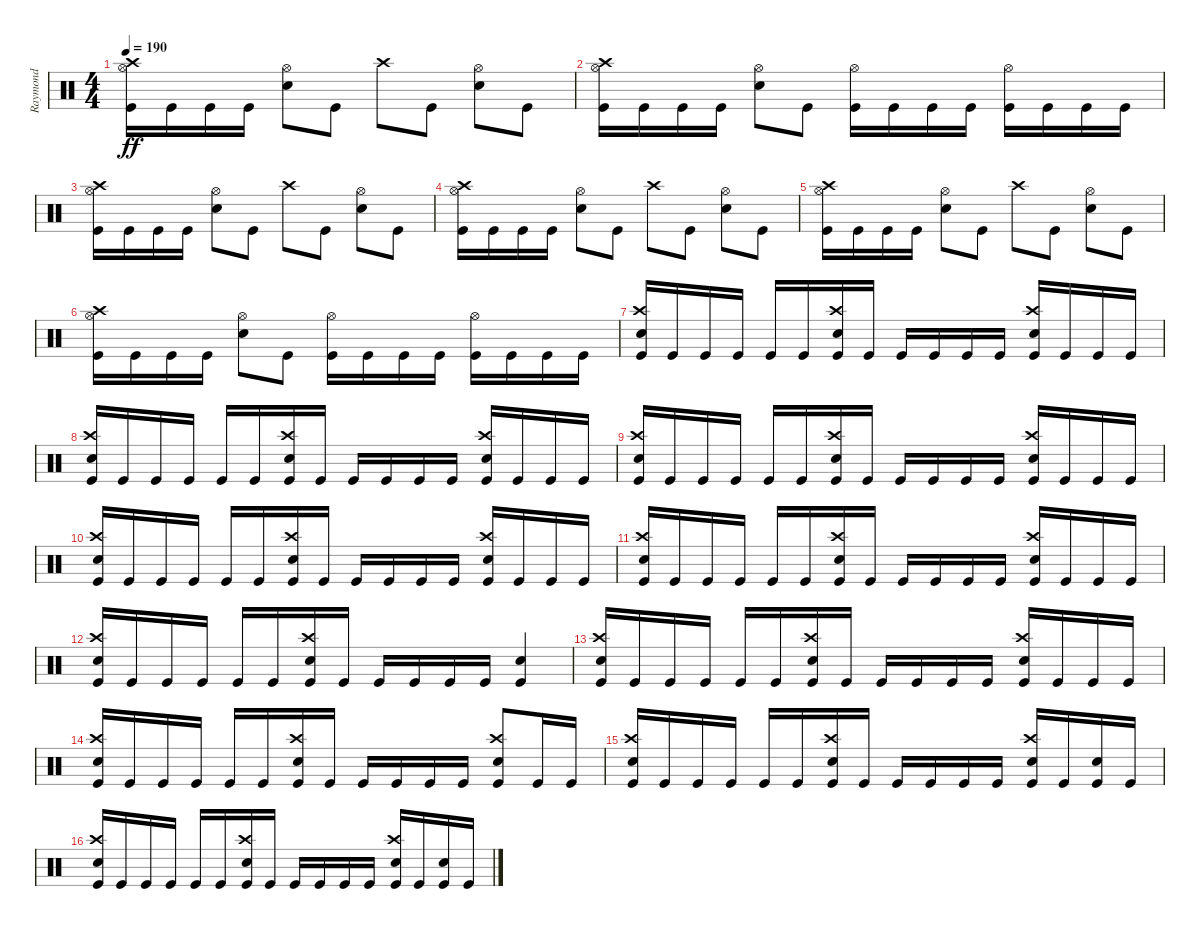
\track ("Raymond" "Raymond") {instrument percussion}
\staff {score}
\articulation defaults
\ts (4 4)
\tempo 190
\clef neutral
\ks c
("Kick (hit)" "Hi-Hat (open)" "Crash high (hit)").16{dy ff} "Kick (hit)".16 "Kick (hit)".16 "Kick (hit)".16 ("Snare (hit) 2" "Hi-Hat (open)").8 "Kick (hit)".8 "Crash high (hit)".8 "Kick (hit)".8 ("Snare (hit) 2" "Hi-Hat (open)").8 "Kick (hit)".8 |
("Kick (hit)" "Hi-Hat (open)" "Crash high (hit)").16 "Kick (hit)".16 "Kick (hit)".16 "Kick (hit)".16 ("Snare (hit) 2" "Hi-Hat (open)").8 "Kick (hit)".8 ("Kick (hit)" "Hi-Hat (open)").16 "Kick (hit)".16 "Kick (hit)".16 "Kick (hit)".16 ("Kick (hit)" "Hi-Hat (open)").16 "Kick (hit)".16 "Kick (hit)".16 "Kick (hit)".16 |
("Kick (hit)" "Hi-Hat (open)" "Crash high (hit)").16 "Kick (hit)".16 "Kick (hit)".16 "Kick (hit)".16 ("Snare (hit) 2" "Hi-Hat (open)").8 "Kick (hit)".8 "Crash high (hit)".8 "Kick (hit)".8 ("Snare (hit) 2" "Hi-Hat (open)").8 "Kick (hit)".8 |
("Kick (hit)" "Hi-Hat (open)" "Crash high (hit)").16 "Kick (hit)".16 "Kick (hit)".16 "Kick (hit)".16 ("Snare (hit) 2" "Hi-Hat (open)").8 "Kick (hit)".8 "Crash high (hit)".8 "Kick (hit)".8 ("Snare (hit) 2" "Hi-Hat (open)").8 "Kick (hit)".8 |
("Kick (hit)" "Hi-Hat (open)" "Crash high (hit)").16 "Kick (hit)".16 "Kick (hit)".16 "Kick (hit)".16 ("Snare (hit) 2" "Hi-Hat (open)").8 "Kick (hit)".8 "Crash high (hit)".8 "Kick (hit)".8 ("Snare (hit) 2" "Hi-Hat (open)").8 "Kick (hit)".8 |
("Kick (hit)" "Hi-Hat (open)" "Crash high (hit)").16 "Kick (hit)".16 "Kick (hit)".16 "Kick (hit)".16 ("Snare (hit) 2" "Hi-Hat (open)").8 "Kick (hit)".8 ("Kick (hit)" "Hi-Hat (open)").16 "Kick (hit)".16 "Kick (hit)".16 "Kick (hit)".16 ("Kick (hit)" "Hi-Hat (open)").16 "Kick (hit)".16 "Kick (hit)".16 "Kick (hit)".16 |
("Kick (hit)" "Snare (hit) 2" "Crash high (hit)").16 "Kick (hit)".16 "Kick (hit)".16 "Kick (hit)".16 "Kick (hit)".16 "Kick (hit)".16 ("Kick (hit)" "Snare (hit) 2" "Crash high (hit)").16 "Kick (hit)".16 "Kick (hit)".16 "Kick (hit)".16 "Kick (hit)".16 "Kick (hit)".16 ("Kick (hit)" "Snare (hit) 2" "Crash high (hit)").16 "Kick (hit)".16 "Kick (hit)".16 "Kick (hit)".16 |
("Kick (hit)" "Snare (hit) 2" "Crash high (hit)").16 "Kick (hit)".16 "Kick (hit)".16 "Kick (hit)".16 "Kick (hit)".16 "Kick (hit)".16 ("Kick (hit)" "Snare (hit) 2" "Crash high (hit)").16 "Kick (hit)".16 "Kick (hit)".16 "Kick (hit)".16 "Kick (hit)".16 "Kick (hit)".16 ("Kick (hit)" "Snare (hit) 2" "Crash high (hit)").16 "Kick (hit)".16 "Kick (hit)".16 "Kick (hit)".16 |
("Kick (hit)" "Snare (hit) 2" "Crash high (hit)").16 "Kick (hit)".16 "Kick (hit)".16 "Kick (hit)".16 "Kick (hit)".16 "Kick (hit)".16 ("Kick (hit)" "Snare (hit) 2" "Crash high (hit)").16 "Kick (hit)".16 "Kick (hit)".16 "Kick (hit)".16 "Kick (hit)".16 "Kick (hit)".16 ("Kick (hit)" "Snare (hit) 2" "Crash high (hit)").16 "Kick (hit)".16 "Kick (hit)".16 "Kick (hit)".16 |
("Kick (hit)" "Snare (hit) 2" "Crash high (hit)").16 "Kick (hit)".16 "Kick (hit)".16 "Kick (hit)".16 "Kick (hit)".16 "Kick (hit)".16 ("Kick (hit)" "Snare (hit) 2" "Crash high (hit)").16 "Kick (hit)".16 "Kick (hit)".16 "Kick (hit)".16 "Kick (hit)".16 "Kick (hit)".16 ("Kick (hit)" "Snare (hit) 2" "Crash high (hit)").16 "Kick (hit)".16 "Kick (hit)".16 "Kick (hit)".16 |
("Kick (hit)" "Snare (hit) 2" "Crash high (hit)").16 "Kick (hit)".16 "Kick (hit)".16 "Kick (hit)".16 "Kick (hit)".16 "Kick (hit)".16 ("Kick (hit)" "Snare (hit) 2" "Crash high (hit)").16 "Kick (hit)".16 "Kick (hit)".16 "Kick (hit)".16 "Kick (hit)".16 "Kick (hit)".16 ("Kick (hit)" "Snare (hit) 2" "Crash high (hit)").16 "Kick (hit)".16 "Kick (hit)".16 "Kick (hit)".16 |
("Kick (hit)" "Snare (hit) 2" "Crash high (hit)").16 "Kick (hit)".16 "Kick (hit)".16 "Kick (hit)".16 "Kick (hit)".16 "Kick (hit)".16 ("Kick (hit)" "Snare (hit) 2" "Crash high (hit)").16 "Kick (hit)".16 "Kick (hit)".16 "Kick (hit)".16 "Kick (hit)".16 "Kick (hit)".16 ("Kick (hit)" "Snare (hit) 2").4 |
("Kick (hit)" "Snare (hit) 2" "Crash high (hit)").16 "Kick (hit)".16 "Kick (hit)".16 "Kick (hit)".16 "Kick (hit)".16 "Kick (hit)".16 ("Kick (hit)" "Snare (hit) 2" "Crash high (hit)").16 "Kick (hit)".16 "Kick (hit)".16 "Kick (hit)".16 "Kick (hit)".16 "Kick (hit)".16 ("Kick (hit)" "Snare (hit) 2" "Crash high (hit)").16 "Kick (hit)".16 "Kick (hit)".16 "Kick (hit)".16 |
("Kick (hit)" "Snare (hit) 2" "Crash high (hit)").16 "Kick (hit)".16 "Kick (hit)".16 "Kick (hit)".16 "Kick (hit)".16 "Kick (hit)".16 ("Kick (hit)" "Snare (hit) 2" "Crash high (hit)").16 "Kick (hit)".16 "Kick (hit)".16 "Kick (hit)".16 "Kick (hit)".16 "Kick (hit)".16 ("Kick (hit)" "Snare (hit) 2" "Crash high (hit)").8 "Kick (hit)".16 "Kick (hit)".16 |
("Kick (hit)" "Snare (hit) 2" "Crash high (hit)").16 "Kick (hit)".16 "Kick (hit)".16 "Kick (hit)".16 "Kick (hit)".16 "Kick (hit)".16 ("Kick (hit)" "Snare (hit) 2" "Crash high (hit)").16 "Kick (hit)".16 "Kick (hit)".16 "Kick (hit)".16 "Kick (hit)".16 "Kick (hit)".16 ("Kick (hit)" "Snare (hit) 2" "Crash high (hit)").16 "Kick (hit)".16 ("Kick (hit)" "Snare (hit) 2").16 "Kick (hit)".16 |
("Kick (hit)" "Snare (hit) 2" "Crash high (hit)").16 "Kick (hit)".16 "Kick (hit)".16 "Kick (hit)".16 "Kick (hit)".16 "Kick (hit)".16 ("Kick (hit)" "Snare (hit) 2" "Crash high (hit)").16 "Kick (hit)".16 "Kick (hit)".16 "Kick (hit)".16 "Kick (hit)".16 "Kick (hit)".16 ("Kick (hit)" "Snare (hit) 2" "Crash high (hit)").16 "Kick (hit)".16 ("Kick (hit)" "Snare (hit) 2").16 "Kick (hit)".16
